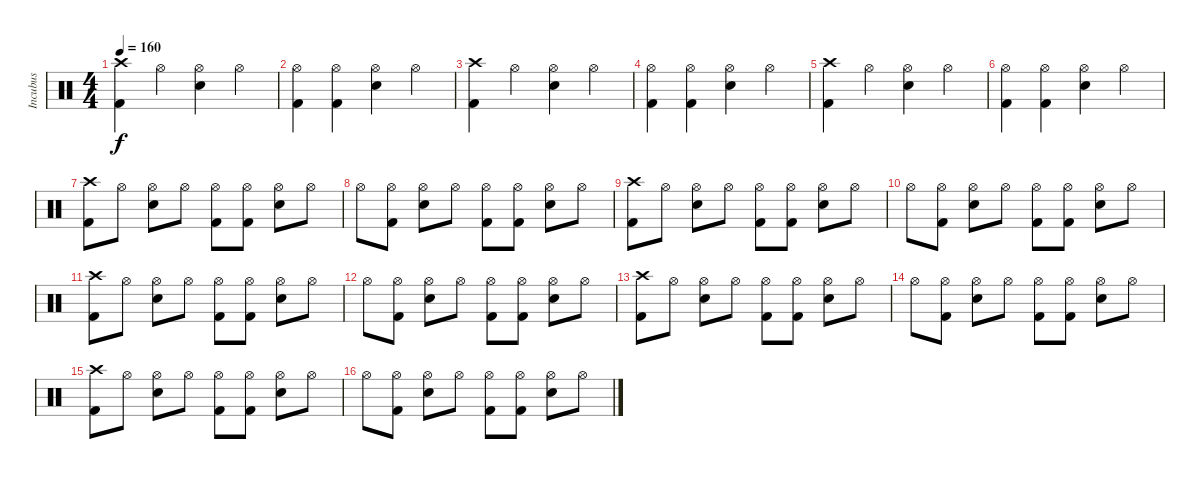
\track ("Incubus" "Incubus") {instrument percussion}
\staff {score}
\articulation defaults
\ts (4 4)
\tempo 160
\clef neutral
\ks c
("Crash high (hit)" "Kick (hit) 2").4{dy f} "Hi-Hat (open)".4 ("Hi-Hat (open)" "Snare (hit) 2").4 "Hi-Hat (open)".4 |
("Hi-Hat (open)" "Kick (hit) 2").4 ("Hi-Hat (open)" "Kick (hit) 2").4 ("Hi-Hat (open)" "Snare (hit) 2").4 "Hi-Hat (open)".4 |
("Crash high (hit)" "Kick (hit) 2").4 "Hi-Hat (open)".4 ("Hi-Hat (open)" "Snare (hit) 2").4 "Hi-Hat (open)".4 |
("Hi-Hat (open)" "Kick (hit) 2").4 ("Hi-Hat (open)" "Kick (hit) 2").4 ("Hi-Hat (open)" "Snare (hit) 2").4 "Hi-Hat (open)".4 |
("Crash high (hit)" "Kick (hit) 2").4 "Hi-Hat (open)".4 ("Hi-Hat (open)" "Snare (hit) 2").4 "Hi-Hat (open)".4 |
("Hi-Hat (open)" "Kick (hit) 2").4 ("Hi-Hat (open)" "Kick (hit) 2").4 ("Hi-Hat (open)" "Snare (hit) 2").4 "Hi-Hat (open)".4 |
("Crash high (hit)" "Kick (hit) 2").8 "Hi-Hat (open)".8 ("Hi-Hat (open)" "Snare (hit) 2").8 "Hi-Hat (open)".8 ("Hi-Hat (open)" "Kick (hit) 2").8 ("Hi-Hat (open)" "Kick (hit) 2").8 ("Hi-Hat (open)" "Snare (hit) 2").8 "Hi-Hat (open)".8 |
"Hi-Hat (open)".8 ("Hi-Hat (open)" "Kick (hit) 2").8 ("Hi-Hat (open)" "Snare (hit) 2").8 "Hi-Hat (open)".8 ("Hi-Hat (open)" "Kick (hit) 2").8 ("Hi-Hat (open)" "Kick (hit) 2").8 ("Hi-Hat (open)" "Snare (hit) 2").8 "Hi-Hat (open)".8 |
("Crash high (hit)" "Kick (hit) 2").8 "Hi-Hat (open)".8 ("Hi-Hat (open)" "Snare (hit) 2").8 "Hi-Hat (open)".8 ("Hi-Hat (open)" "Kick (hit) 2").8 ("Hi-Hat (open)" "Kick (hit) 2").8 ("Hi-Hat (open)" "Snare (hit) 2").8 "Hi-Hat (open)".8 |
"Hi-Hat (open)".8 ("Hi-Hat (open)" "Kick (hit) 2").8 ("Hi-Hat (open)" "Snare (hit) 2").8 "Hi-Hat (open)".8 ("Hi-Hat (open)" "Kick (hit) 2").8 ("Hi-Hat (open)" "Kick (hit) 2").8 ("Hi-Hat (open)" "Snare (hit) 2").8 "Hi-Hat (open)".8 |
("Crash high (hit)" "Kick (hit) 2").8 "Hi-Hat (open)".8 ("Hi-Hat (open)" "Snare (hit) 2").8 "Hi-Hat (open)".8 ("Hi-Hat (open)" "Kick (hit) 2").8 ("Hi-Hat (open)" "Kick (hit) 2").8 ("Hi-Hat (open)" "Snare (hit) 2").8 "Hi-Hat (open)".8 |
"Hi-Hat (open)".8 ("Hi-Hat (open)" "Kick (hit) 2").8 ("Hi-Hat (open)" "Snare (hit) 2").8 "Hi-Hat (open)".8 ("Hi-Hat (open)" "Kick (hit) 2").8 ("Hi-Hat (open)" "Kick (hit) 2").8 ("Hi-Hat (open)" "Snare (hit) 2").8 "Hi-Hat (open)".8 |
("Crash high (hit)" "Kick (hit) 2").8 "Hi-Hat (open)".8 ("Hi-Hat (open)" "Snare (hit) 2").8 "Hi-Hat (open)".8 ("Hi-Hat (open)" "Kick (hit) 2").8 ("Hi-Hat (open)" "Kick (hit) 2").8 ("Hi-Hat (open)" "Snare (hit) 2").8 "Hi-Hat (open)".8 |
"Hi-Hat (open)".8 ("Hi-Hat (open)" "Kick (hit) 2").8 ("Hi-Hat (open)" "Snare (hit) 2").8 "Hi-Hat (open)".8 ("Hi-Hat (open)" "Kick (hit) 2").8 ("Hi-Hat (open)" "Kick (hit) 2").8 ("Hi-Hat (open)" "Snare (hit) 2").8 "Hi-Hat (open)".8 |
("Crash high (hit)" "Kick (hit) 2").8 "Hi-Hat (open)".8 ("Hi-Hat (open)" "Snare (hit) 2").8 "Hi-Hat (open)".8 ("Hi-Hat (open)" "Kick (hit) 2").8 ("Hi-Hat (open)" "Kick (hit) 2").8 ("Hi-Hat (open)" "Snare (hit) 2").8 "Hi-Hat (open)".8 |
"Hi-Hat (open)".8 ("Hi-Hat (open)" "Kick (hit) 2").8 ("Hi-Hat (open)" "Snare (hit) 2").8 "Hi-Hat (open)".8 ("Hi-Hat (open)" "Kick (hit) 2").8 ("Hi-Hat (open)" "Kick (hit) 2").8 ("Hi-Hat (open)" "Snare (hit) 2").8 "Hi-Hat (open)".8
